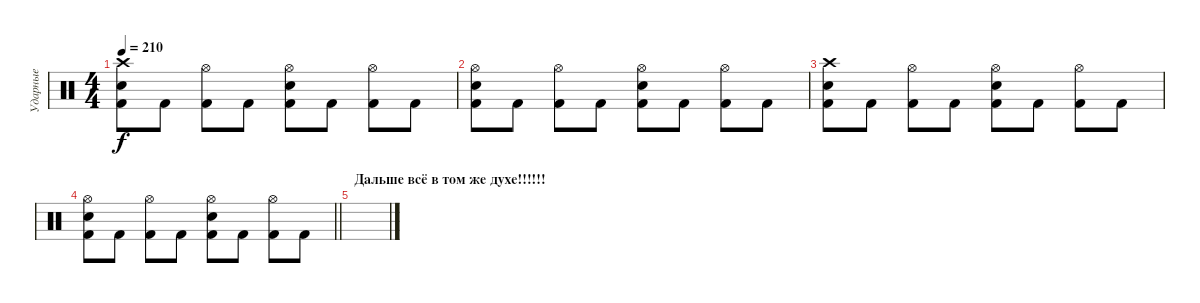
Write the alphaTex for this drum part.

\track ("Ударные" "Ударные") {instrument percussion}
\staff {score}
\articulation defaults
\ts (4 4)
\tempo 210
\clef neutral
\ks c
("Crash high (hit)" "Electric Snare (hit)" "Kick (hit) 2").8{dy f} "Kick (hit) 2".8 ("Kick (hit) 2" "Hi-Hat (open)").8 "Kick (hit) 2".8 ("Kick (hit) 2" "Hi-Hat (open)" "Electric Snare (hit)").8 "Kick (hit) 2".8 ("Kick (hit) 2" "Hi-Hat (open)").8 "Kick (hit) 2".8 |
("Hi-Hat (open)" "Electric Snare (hit)" "Kick (hit) 2").8 "Kick (hit) 2".8 ("Kick (hit) 2" "Hi-Hat (open)").8 "Kick (hit) 2".8 ("Kick (hit) 2" "Hi-Hat (open)" "Electric Snare (hit)").8 "Kick (hit) 2".8 ("Kick (hit) 2" "Hi-Hat (open)").8 "Kick (hit) 2".8 |
("Crash high (hit)" "Electric Snare (hit)" "Kick (hit) 2").8 "Kick (hit) 2".8 ("Kick (hit) 2" "Hi-Hat (open)").8 "Kick (hit) 2".8 ("Kick (hit) 2" "Hi-Hat (open)" "Electric Snare (hit)").8 "Kick (hit) 2".8 ("Kick (hit) 2" "Hi-Hat (open)").8 "Kick (hit) 2".8 |
\barLineRight lightlight
("Hi-Hat (open)" "Electric Snare (hit)" "Kick (hit) 2").8 "Kick (hit) 2".8 ("Kick (hit) 2" "Hi-Hat (open)").8 "Kick (hit) 2".8 ("Kick (hit) 2" "Hi-Hat (open)" "Electric Snare (hit)").8 "Kick (hit) 2".8 ("Kick (hit) 2" "Hi-Hat (open)").8 "Kick (hit) 2".8 |
\section ("" "Дальше всё в том же духе!!!!!!")
